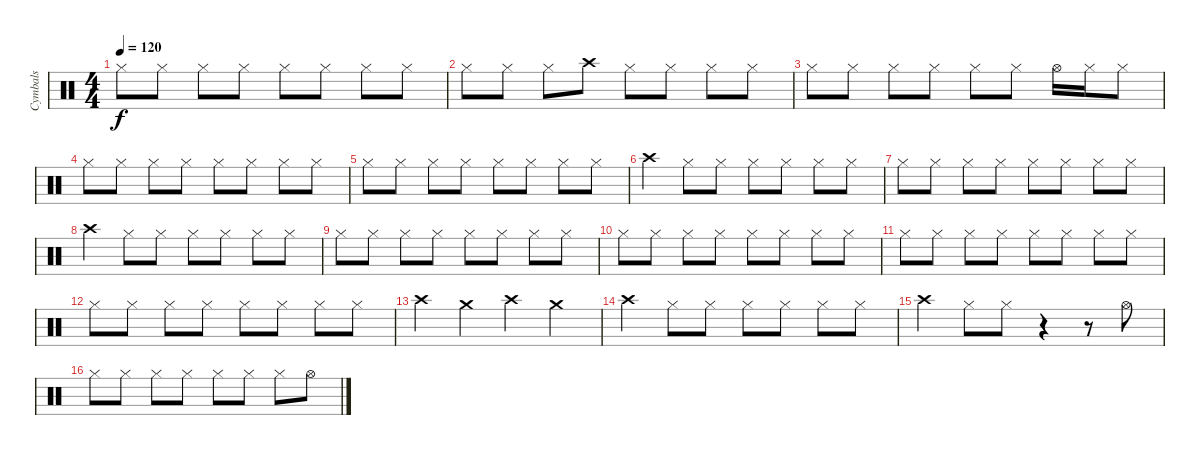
\track ("Cymbals" "Cymbals") {instrument percussion}
\staff {score}
\articulation defaults
\ts (4 4)
\tempo 120
\clef neutral
\ks c "Hi-Hat (closed)".8{dy f} "Hi-Hat (closed)".8 "Hi-Hat (closed)".8 "Hi-Hat (closed)".8 "Hi-Hat (closed)".8 "Hi-Hat (closed)".8 "Hi-Hat (closed)".8 "Hi-Hat (closed)".8
|
"Hi-Hat (closed)".8 "Hi-Hat (closed)".8 "Hi-Hat (closed)".8 "Crash high (hit)".8 "Hi-Hat (closed)".8 "Hi-Hat (closed)".8 "Hi-Hat (closed)".8 "Hi-Hat (closed)".8 |
"Hi-Hat (closed)".8 "Hi-Hat (closed)".8 "Hi-Hat (closed)".8 "Hi-Hat (closed)".8 "Hi-Hat (closed)".8 "Hi-Hat (closed)".8 "Hi-Hat (open)".16 "Hi-Hat (closed)".16 "Hi-Hat (closed)".8 |
"Hi-Hat (closed)".8 "Hi-Hat (closed)".8 "Hi-Hat (closed)".8 "Hi-Hat (closed)".8 "Hi-Hat (closed)".8 "Hi-Hat (closed)".8 "Hi-Hat (closed)".8 "Hi-Hat (closed)".8 |
"Hi-Hat (closed)".8 "Hi-Hat (closed)".8 "Hi-Hat (closed)".8 "Hi-Hat (closed)".8 "Hi-Hat (closed)".8 "Hi-Hat (closed)".8 "Hi-Hat (closed)".8 "Hi-Hat (closed)".8 |
"Crash high (hit)".4 "Hi-Hat (closed)".8 "Hi-Hat (closed)".8 "Hi-Hat (closed)".8 "Hi-Hat (closed)".8 "Hi-Hat (closed)".8 "Hi-Hat (closed)".8 |
"Hi-Hat (closed)".8 "Hi-Hat (closed)".8 "Hi-Hat (closed)".8 "Hi-Hat (closed)".8 "Hi-Hat (closed)".8 "Hi-Hat (closed)".8 "Hi-Hat (closed)".8 "Hi-Hat (closed)".8 |
"Crash high (hit)".4 "Hi-Hat (closed)".8 "Hi-Hat (closed)".8 "Hi-Hat (closed)".8 "Hi-Hat (closed)".8 "Hi-Hat (closed)".8 "Hi-Hat (closed)".8 |
"Hi-Hat (closed)".8 "Hi-Hat (closed)".8 "Hi-Hat (closed)".8 "Hi-Hat (closed)".8 "Hi-Hat (closed)".8 "Hi-Hat (closed)".8 "Hi-Hat (closed)".8 "Hi-Hat (closed)".8 |
"Hi-Hat (closed)".8 "Hi-Hat (closed)".8 "Hi-Hat (closed)".8 "Hi-Hat (closed)".8 "Hi-Hat (closed)".8 "Hi-Hat (closed)".8 "Hi-Hat (closed)".8 "Hi-Hat (closed)".8 |
"Hi-Hat (closed)".8 "Hi-Hat (closed)".8 "Hi-Hat (closed)".8 "Hi-Hat (closed)".8 "Hi-Hat (closed)".8 "Hi-Hat (closed)".8 "Hi-Hat (closed)".8 "Hi-Hat (closed)".8 |
"Hi-Hat (closed)".8 "Hi-Hat (closed)".8 "Hi-Hat (closed)".8 "Hi-Hat (closed)".8 "Hi-Hat (closed)".8 "Hi-Hat (closed)".8 "Hi-Hat (closed)".8 "Hi-Hat (closed)".8 |
"Crash high (hit)".4 "Crash medium (hit)".4 "Crash high (hit)".4 "Crash medium (hit)".4 |
"Crash high (hit)".4 "Hi-Hat (closed)".8 "Hi-Hat (closed)".8 "Hi-Hat (closed)".8 "Hi-Hat (closed)".8 "Hi-Hat (closed)".8 "Hi-Hat (closed)".8 |
"Crash high (hit)".4 "Hi-Hat (closed)".8 "Hi-Hat (closed)".8 r.4 r.8 "Hi-Hat (open)".8 |
"Hi-Hat (closed)".8 "Hi-Hat (closed)".8 "Hi-Hat (closed)".8 "Hi-Hat (closed)".8 "Hi-Hat (closed)".8 "Hi-Hat (closed)".8 "Hi-Hat (closed)".8 "Hi-Hat (open)".8
